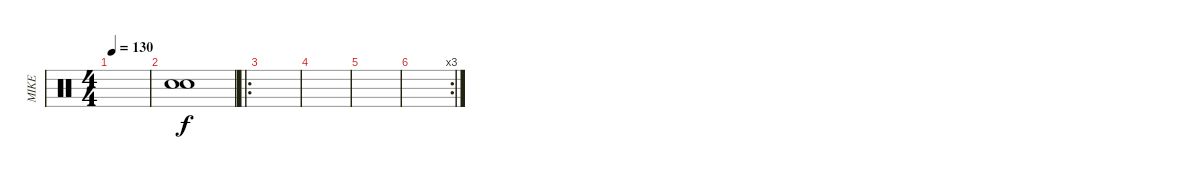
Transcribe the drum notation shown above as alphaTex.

\track ("MIKE" "MIKE") {instrument percussion}
\staff {score}
\articulation defaults
\ts (4 4)
\tempo 130
\clef neutral
\ks c
|
("Snare (hit)"{t} "Snare (hit)"{t}).1{dy f} |
\ro
|
|
|
\rc 3
